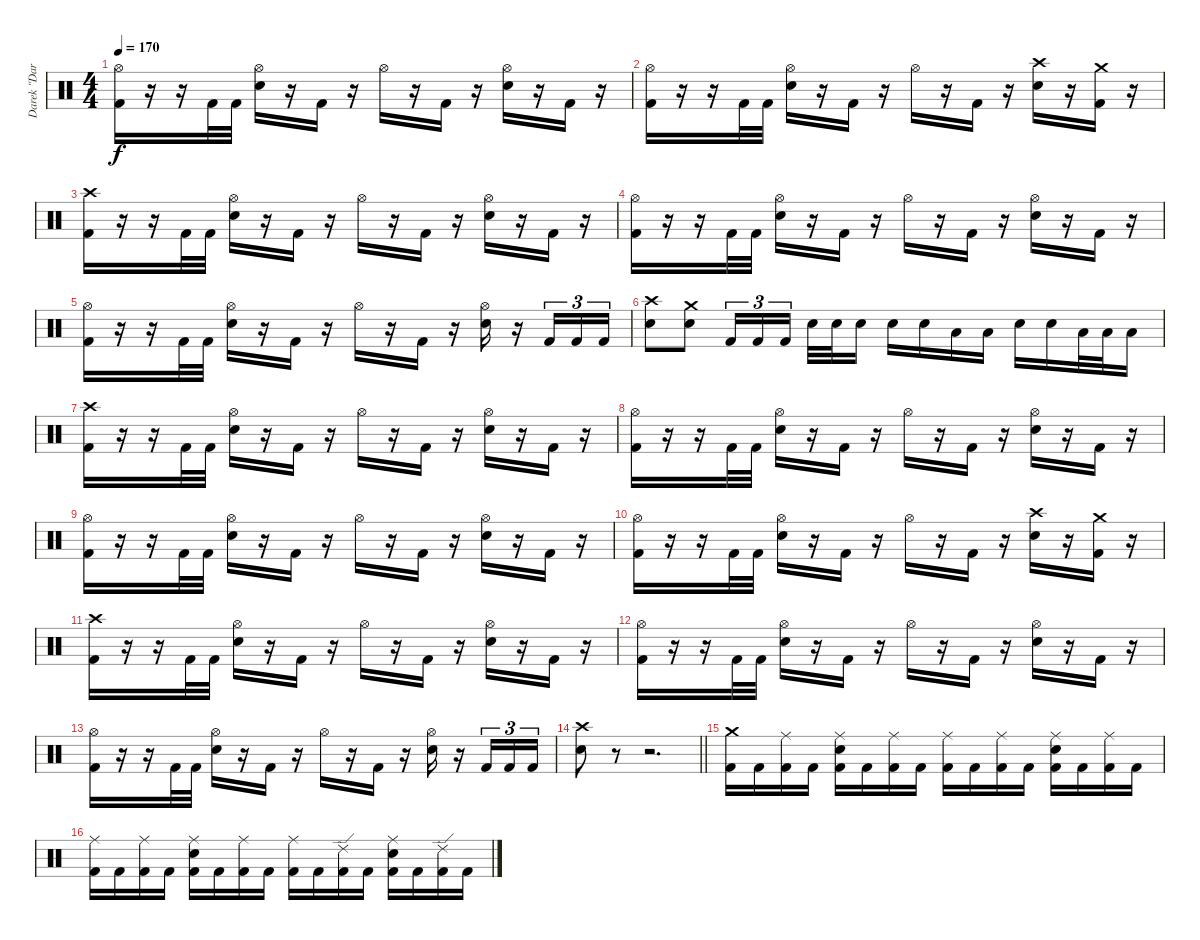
\track ("Darek \"Daray\" Brzozowski " "Darek \"Dar") {instrument percussion}
\staff {score}
\articulation defaults
\ts (4 4)
\tempo 170
\clef neutral
\ks c
("Hi-Hat (open)" "Kick (hit) 2").16{dy f} r.16 r.16 "Kick (hit) 2".32 "Kick (hit) 2".32 ("Hi-Hat (open)" "Electric Snare (hit)").16 r.16 "Kick (hit) 2".16 r.16 "Hi-Hat (open)".16 r.16 "Kick (hit) 2".16 r.16 ("Hi-Hat (open)" "Electric Snare (hit)").16 r.16 "Kick (hit) 2".16 r.16 |
("Hi-Hat (open)" "Kick (hit) 2").16 r.16 r.16 "Kick (hit) 2".32 "Kick (hit) 2".32 ("Hi-Hat (open)" "Electric Snare (hit)").16 r.16 "Kick (hit) 2".16 r.16 "Hi-Hat (open)".16 r.16 "Kick (hit) 2".16 r.16 ("Crash high (hit)" "Electric Snare (hit)").16 r.16 ("Crash medium (hit)" "Kick (hit) 2").16 r.16 |
("Crash high (hit)" "Kick (hit) 2").16 r.16 r.16 "Kick (hit) 2".32 "Kick (hit) 2".32 ("Hi-Hat (open)" "Electric Snare (hit)").16 r.16 "Kick (hit) 2".16 r.16 "Hi-Hat (open)".16 r.16 "Kick (hit) 2".16 r.16 ("Hi-Hat (open)" "Electric Snare (hit)").16 r.16 "Kick (hit) 2".16 r.16 |
("Hi-Hat (open)" "Kick (hit) 2").16 r.16 r.16 "Kick (hit) 2".32 "Kick (hit) 2".32 ("Hi-Hat (open)" "Electric Snare (hit)").16 r.16 "Kick (hit) 2".16 r.16 "Hi-Hat (open)".16 r.16 "Kick (hit) 2".16 r.16 ("Hi-Hat (open)" "Electric Snare (hit)").16 r.16 "Kick (hit) 2".16 r.16 |
("Hi-Hat (open)" "Kick (hit) 2").16 r.16 r.16 "Kick (hit) 2".32 "Kick (hit) 2".32 ("Hi-Hat (open)" "Electric Snare (hit)").16 r.16 "Kick (hit) 2".16 r.16 "Hi-Hat (open)".16 r.16 "Kick (hit) 2".16 r.16 ("Hi-Hat (open)" "Electric Snare (hit)").16 r.16 "Kick (hit) 2".16{tu (3 2)} "Kick (hit) 2".16{tu (3 2)} "Kick (hit) 2".16{tu (3 2)} |
("Crash high (hit)" "Electric Snare (hit)").8 ("Crash medium (hit)" "Electric Snare (hit)").8 "Kick (hit) 2".16{tu (3 2)} "Kick (hit) 2".16{tu (3 2)} "Kick (hit) 2".16{tu (3 2) beam splitsecondary} "Electric Snare (hit)".32 "Electric Snare (hit)".32 "Electric Snare (hit)".16 "Electric Snare (hit)".16 "Electric Snare (hit)".16 "Low Floor Tom (hit)".16 "Low Floor Tom (hit)".16 "Electric Snare (hit)".16 "Electric Snare (hit)".16 "Low Tom (hit)".32 "Low Tom (hit)".32 "Low Tom (hit)".16 |
("Crash high (hit)" "Kick (hit) 2").16 r.16 r.16 "Kick (hit) 2".32 "Kick (hit) 2".32 ("Hi-Hat (open)" "Electric Snare (hit)").16 r.16 "Kick (hit) 2".16 r.16 "Hi-Hat (open)".16 r.16 "Kick (hit) 2".16 r.16 ("Hi-Hat (open)" "Electric Snare (hit)").16 r.16 "Kick (hit) 2".16 r.16 |
("Hi-Hat (open)" "Kick (hit) 2").16 r.16 r.16 "Kick (hit) 2".32 "Kick (hit) 2".32 ("Hi-Hat (open)" "Electric Snare (hit)").16 r.16 "Kick (hit) 2".16 r.16 "Hi-Hat (open)".16 r.16 "Kick (hit) 2".16 r.16 ("Hi-Hat (open)" "Electric Snare (hit)").16 r.16 "Kick (hit) 2".16 r.16 |
("Hi-Hat (open)" "Kick (hit) 2").16 r.16 r.16 "Kick (hit) 2".32 "Kick (hit) 2".32 ("Hi-Hat (open)" "Electric Snare (hit)").16 r.16 "Kick (hit) 2".16 r.16 "Hi-Hat (open)".16 r.16 "Kick (hit) 2".16 r.16 ("Hi-Hat (open)" "Electric Snare (hit)").16 r.16 "Kick (hit) 2".16 r.16 |
("Hi-Hat (open)" "Kick (hit) 2").16 r.16 r.16 "Kick (hit) 2".32 "Kick (hit) 2".32 ("Hi-Hat (open)" "Electric Snare (hit)").16 r.16 "Kick (hit) 2".16 r.16 "Hi-Hat (open)".16 r.16 "Kick (hit) 2".16 r.16 ("Crash high (hit)" "Electric Snare (hit)").16 r.16 ("Crash medium (hit)" "Kick (hit) 2").16 r.16 |
("Crash high (hit)" "Kick (hit) 2").16 r.16 r.16 "Kick (hit) 2".32 "Kick (hit) 2".32 ("Hi-Hat (open)" "Electric Snare (hit)").16 r.16 "Kick (hit) 2".16 r.16 "Hi-Hat (open)".16 r.16 "Kick (hit) 2".16 r.16 ("Hi-Hat (open)" "Electric Snare (hit)").16 r.16 "Kick (hit) 2".16 r.16 |
("Hi-Hat (open)" "Kick (hit) 2").16 r.16 r.16 "Kick (hit) 2".32 "Kick (hit) 2".32 ("Hi-Hat (open)" "Electric Snare (hit)").16 r.16 "Kick (hit) 2".16 r.16 "Hi-Hat (open)".16 r.16 "Kick (hit) 2".16 r.16 ("Hi-Hat (open)" "Electric Snare (hit)").16 r.16 "Kick (hit) 2".16 r.16 |
("Hi-Hat (open)" "Kick (hit) 2").16 r.16 r.16 "Kick (hit) 2".32 "Kick (hit) 2".32 ("Hi-Hat (open)" "Electric Snare (hit)").16 r.16 "Kick (hit) 2".16 r.16 "Hi-Hat (open)".16 r.16 "Kick (hit) 2".16 r.16 ("Hi-Hat (open)" "Electric Snare (hit)").16 r.16 "Kick (hit) 2".16{tu (3 2)} "Kick (hit) 2".16{tu (3 2)} "Kick (hit) 2".16{tu (3 2)} |
\barLineRight lightlight
("Crash high (hit)" "Electric Snare (hit)").8 r.8 r.2{d} |
("Crash medium (hit)" "Kick (hit) 2").16 "Kick (hit) 2".16 ("Ride (middle)" "Kick (hit) 2").16 "Kick (hit) 2".16 ("Ride (middle)" "Electric Snare (hit)" "Kick (hit) 2").16 "Kick (hit) 2".16 ("Ride (middle)" "Kick (hit) 2").16 "Kick (hit) 2".16 ("Ride (middle)" "Kick (hit) 2").16 "Kick (hit) 2".16 ("Ride (middle)" "Kick (hit) 2").16 "Kick (hit) 2".16 ("Ride (middle)" "Electric Snare (hit)" "Kick (hit) 2").16 "Kick (hit) 2".16 ("Ride (middle)" "Kick (hit) 2").16 "Kick (hit) 2".16 |
("Ride (middle)" "Kick (hit) 2").16 "Kick (hit) 2".16 ("Ride (middle)" "Kick (hit) 2").16 "Kick (hit) 2".16 ("Ride (middle)" "Electric Snare (hit)" "Kick (hit) 2").16 "Kick (hit) 2".16 ("Ride (middle)" "Kick (hit) 2").16 "Kick (hit) 2".16 ("Ride (middle)" "Kick (hit) 2").16 "Kick (hit) 2".16 ("Ride (edge) 2" "Kick (hit) 2").16 "Kick (hit) 2".16 ("Ride (middle)" "Electric Snare (hit)" "Kick (hit) 2").16 "Kick (hit) 2".16 ("Ride (edge) 2" "Kick (hit) 2").16 "Kick (hit) 2".16
